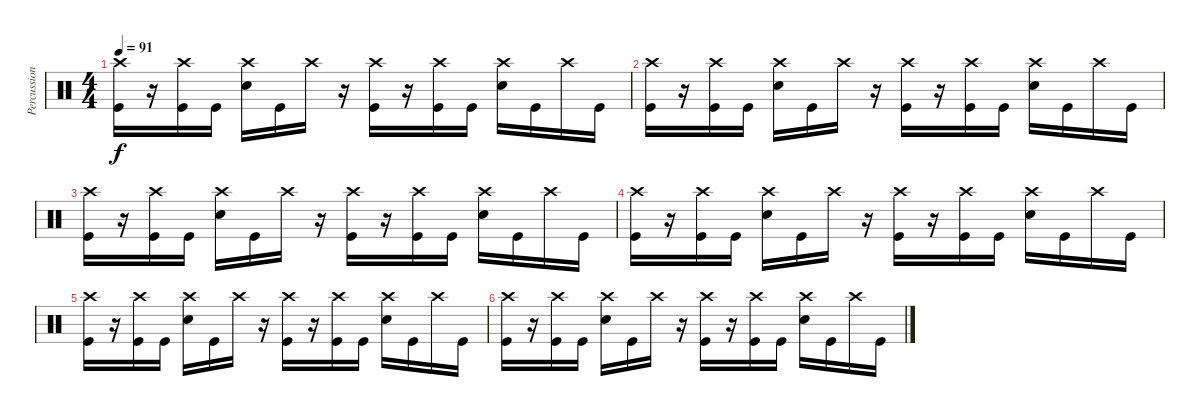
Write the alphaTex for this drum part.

\track ("Percussions (Nejo)" "Percussion") {instrument percussion}
\staff {score}
\articulation defaults
\ts (4 4)
\tempo 91
\clef neutral
\ks c
("Crash high (hit)" "Kick (hit)").16{dy f} r.16 ("Crash high (hit)" "Kick (hit)").16 "Kick (hit)".16 ("Crash high (hit)" "Electric Snare (hit)").16 "Kick (hit)".16 "Crash high (hit)".16 r.16 ("Crash high (hit)" "Kick (hit)").16 r.16 ("Crash high (hit)" "Kick (hit)").16 "Kick (hit)".16 ("Crash high (hit)" "Electric Snare (hit)").16 "Kick (hit)".16 "Crash high (hit)".16 "Kick (hit)".16 |
("Crash high (hit)" "Kick (hit)").16 r.16 ("Crash high (hit)" "Kick (hit)").16 "Kick (hit)".16 ("Crash high (hit)" "Electric Snare (hit)").16 "Kick (hit)".16 "Crash high (hit)".16 r.16 ("Crash high (hit)" "Kick (hit)").16 r.16 ("Crash high (hit)" "Kick (hit)").16 "Kick (hit)".16 ("Crash high (hit)" "Electric Snare (hit)").16 "Kick (hit)".16 "Crash high (hit)".16 "Kick (hit)".16 |
("Crash high (hit)" "Kick (hit)").16 r.16 ("Crash high (hit)" "Kick (hit)").16 "Kick (hit)".16 ("Crash high (hit)" "Electric Snare (hit)").16 "Kick (hit)".16 "Crash high (hit)".16 r.16 ("Crash high (hit)" "Kick (hit)").16 r.16 ("Crash high (hit)" "Kick (hit)").16 "Kick (hit)".16 ("Crash high (hit)" "Electric Snare (hit)").16 "Kick (hit)".16 "Crash high (hit)".16 "Kick (hit)".16 |
("Crash high (hit)" "Kick (hit)").16 r.16 ("Crash high (hit)" "Kick (hit)").16 "Kick (hit)".16 ("Crash high (hit)" "Electric Snare (hit)").16 "Kick (hit)".16 "Crash high (hit)".16 r.16 ("Crash high (hit)" "Kick (hit)").16 r.16 ("Crash high (hit)" "Kick (hit)").16 "Kick (hit)".16 ("Crash high (hit)" "Electric Snare (hit)").16 "Kick (hit)".16 "Crash high (hit)".16 "Kick (hit)".16 |
("Crash high (hit)" "Kick (hit)").16 r.16 ("Crash high (hit)" "Kick (hit)").16 "Kick (hit)".16 ("Crash high (hit)" "Electric Snare (hit)").16 "Kick (hit)".16 "Crash high (hit)".16 r.16 ("Crash high (hit)" "Kick (hit)").16 r.16 ("Crash high (hit)" "Kick (hit)").16 "Kick (hit)".16 ("Crash high (hit)" "Electric Snare (hit)").16 "Kick (hit)".16 "Crash high (hit)".16 "Kick (hit)".16 |
("Crash high (hit)" "Kick (hit)").16 r.16 ("Crash high (hit)" "Kick (hit)").16 "Kick (hit)".16 ("Crash high (hit)" "Electric Snare (hit)").16 "Kick (hit)".16 "Crash high (hit)".16 r.16 ("Crash high (hit)" "Kick (hit)").16 r.16 ("Crash high (hit)" "Kick (hit)").16 "Kick (hit)".16 ("Crash high (hit)" "Electric Snare (hit)").16 "Kick (hit)".16 "Crash high (hit)".16 "Kick (hit)".16
